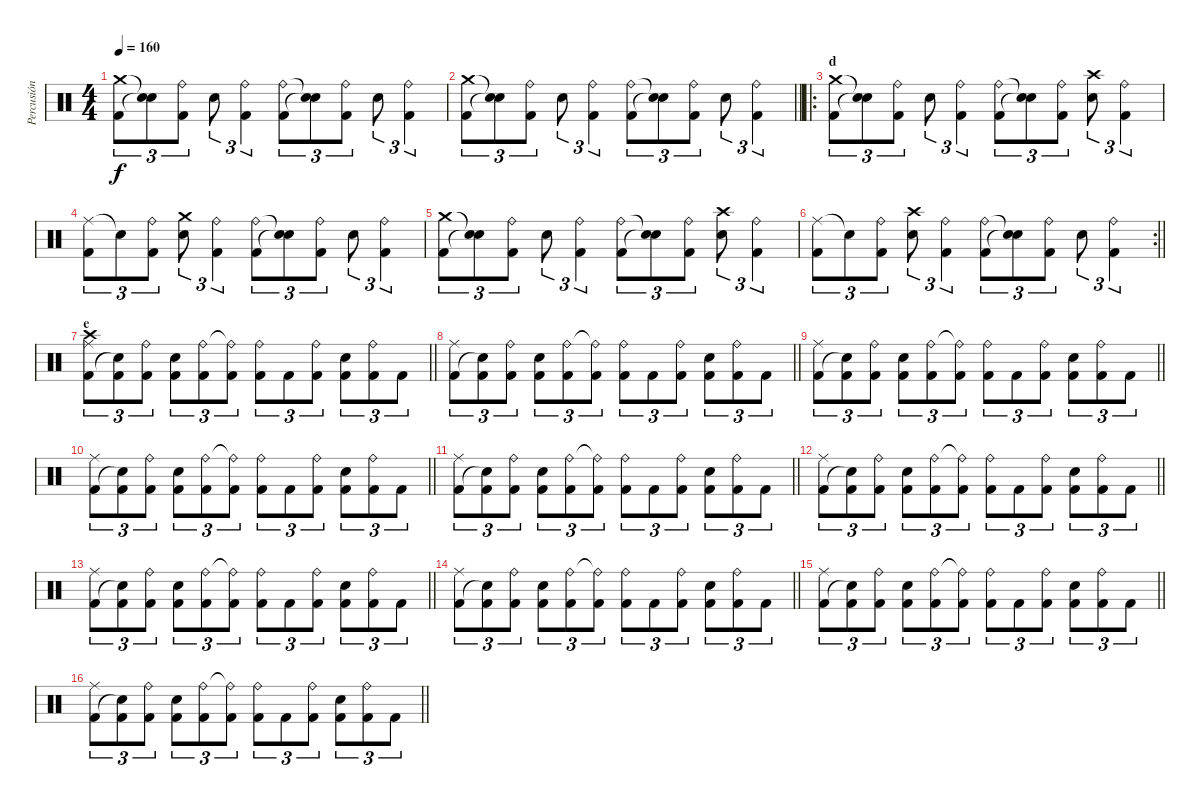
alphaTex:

\track ("Percusión" "Percusión") {instrument percussion}
\staff {score}
\articulation defaults
\ts (4 4)
\tempo 160
\clef neutral
\ks c
("Crash medium (hit)" "Kick (hit) 2").8{tu (3 2) dy f} ("Snare (hit)"{t} "Snare (hit)"{t}).8{tu (3 2)} ("Ride (bell)" "Kick (hit) 2").8{tu (3 2)} "Snare (hit) 2".8{tu (3 2)} ("Ride (bell)" "Kick (hit) 2").4{tu (3 2)} ("Ride (bell)" "Kick (hit) 2").8{tu (3 2)} ("Snare (hit)"{t} "Snare (hit)"{t}).8{tu (3 2)} ("Ride (bell)" "Kick (hit) 2").8{tu (3 2)} "Snare (hit) 2".8{tu (3 2)} ("Ride (bell)" "Kick (hit) 2").4{tu (3 2)} |
\barLineRight lightlight
("Crash medium (hit)" "Kick (hit) 2").8{tu (3 2)} ("Snare (hit)"{t} "Snare (hit)"{t}).8{tu (3 2)} ("Ride (bell)" "Kick (hit) 2").8{tu (3 2)} "Snare (hit) 2".8{tu (3 2)} ("Ride (bell)" "Kick (hit) 2").4{tu (3 2)} ("Ride (bell)" "Kick (hit) 2").8{tu (3 2)} ("Snare (hit)"{t} "Snare (hit)"{t}).8{tu (3 2)} ("Ride (bell)" "Kick (hit) 2").8{tu (3 2)} "Snare (hit) 2".8{tu (3 2)} ("Ride (bell)" "Kick (hit) 2").4{tu (3 2)} |
\ro
\section ("" "d")
("Crash medium (hit)" "Kick (hit) 2").8{tu (3 2)} ("Snare (hit)"{t} "Snare (hit)"{t}).8{tu (3 2)} ("Ride (bell)" "Kick (hit) 2").8{tu (3 2)} "Snare (hit) 2".8{tu (3 2)} ("Ride (bell)" "Kick (hit) 2").4{tu (3 2)} ("Ride (bell)" "Kick (hit) 2").8{tu (3 2)} ("Snare (hit)"{t} "Snare (hit)"{t}).8{tu (3 2)} ("Ride (bell)" "Kick (hit) 2").8{tu (3 2)} ("Snare (hit) 2" "Crash high (hit)").8{tu (3 2)} ("Ride (bell)" "Kick (hit) 2").4{tu (3 2)} |
("Ride (middle)" "Kick (hit) 2").8{tu (3 2)} "Snare (hit)"{t}.8{tu (3 2)} ("Ride (bell)" "Kick (hit) 2").8{tu (3 2)} ("Snare (hit) 2" "Crash medium (hit)").8{tu (3 2)} ("Ride (bell)" "Kick (hit) 2").4{tu (3 2)} ("Ride (bell)" "Kick (hit) 2").8{tu (3 2)} ("Snare (hit)"{t} "Snare (hit)"{t}).8{tu (3 2)} ("Ride (bell)" "Kick (hit) 2").8{tu (3 2)} "Snare (hit) 2".8{tu (3 2)} ("Ride (bell)" "Kick (hit) 2").4{tu (3 2)} |
("Crash medium (hit)" "Kick (hit) 2").8{tu (3 2)} ("Snare (hit)"{t} "Snare (hit)"{t}).8{tu (3 2)} ("Ride (bell)" "Kick (hit) 2").8{tu (3 2)} "Snare (hit) 2".8{tu (3 2)} ("Ride (bell)" "Kick (hit) 2").4{tu (3 2)} ("Ride (bell)" "Kick (hit) 2").8{tu (3 2)} ("Snare (hit)"{t} "Snare (hit)"{t}).8{tu (3 2)} ("Ride (bell)" "Kick (hit) 2").8{tu (3 2)} ("Snare (hit) 2" "Crash high (hit)").8{tu (3 2)} ("Ride (bell)" "Kick (hit) 2").4{tu (3 2)} |
\rc 2
\barLineRight lightlight
("Ride (middle)" "Kick (hit) 2").8{tu (3 2)} "Snare (hit)"{t}.8{tu (3 2)} ("Ride (bell)" "Kick (hit) 2").8{tu (3 2)} ("Snare (hit) 2" "Crash high (hit)").8{tu (3 2)} ("Ride (bell)" "Kick (hit) 2").4{tu (3 2)} ("Ride (bell)" "Kick (hit) 2").8{tu (3 2)} ("Snare (hit)"{t} "Snare (hit)"{t}).8{tu (3 2)} ("Ride (bell)" "Kick (hit) 2").8{tu (3 2)} "Snare (hit) 2".8{tu (3 2)} ("Ride (bell)" "Kick (hit) 2").4{tu (3 2)} |
\section ("" "e")
\barLineRight lightlight
("Ride (middle)" "Kick (hit) 2" "Crash high (hit)").8{tu (3 2)} ("Kick (hit) 2" "Snare (hit)"{t}).8{tu (3 2)} ("Ride (bell)" "Kick (hit) 2").8{tu (3 2)} ("Snare (hit) 2" "Kick (hit) 2").8{tu (3 2)} ("Ride (bell)" "Kick (hit) 2").8{tu (3 2)} ("Ride (bell)"{t} "Kick (hit) 2").8{tu (3 2)} ("Kick (hit) 2" "Ride (bell)").8{tu (3 2)} "Kick (hit) 2".8{tu (3 2)} ("Ride (bell)" "Kick (hit) 2").8{tu (3 2)} ("Kick (hit) 2" "Snare (hit) 2").8{tu (3 2)} ("Kick (hit) 2" "Ride (bell)").8{tu (3 2)} "Kick (hit) 2".8{tu (3 2)} |
\barLineRight lightlight
("Ride (middle)" "Kick (hit) 2").8{tu (3 2)} ("Kick (hit) 2" "Snare (hit)"{t}).8{tu (3 2)} ("Ride (bell)" "Kick (hit) 2").8{tu (3 2)} ("Snare (hit) 2" "Kick (hit) 2").8{tu (3 2)} ("Ride (bell)" "Kick (hit) 2").8{tu (3 2)} ("Ride (bell)"{t} "Kick (hit) 2").8{tu (3 2)} ("Kick (hit) 2" "Ride (bell)").8{tu (3 2)} "Kick (hit) 2".8{tu (3 2)} ("Ride (bell)" "Kick (hit) 2").8{tu (3 2)} ("Kick (hit) 2" "Snare (hit) 2").8{tu (3 2)} ("Kick (hit) 2" "Ride (bell)").8{tu (3 2)} "Kick (hit) 2".8{tu (3 2)} |
\barLineRight lightlight
("Ride (middle)" "Kick (hit) 2").8{tu (3 2)} ("Kick (hit) 2" "Snare (hit)"{t}).8{tu (3 2)} ("Ride (bell)" "Kick (hit) 2").8{tu (3 2)} ("Snare (hit) 2" "Kick (hit) 2").8{tu (3 2)} ("Ride (bell)" "Kick (hit) 2").8{tu (3 2)} ("Ride (bell)"{t} "Kick (hit) 2").8{tu (3 2)} ("Kick (hit) 2" "Ride (bell)").8{tu (3 2)} "Kick (hit) 2".8{tu (3 2)} ("Ride (bell)" "Kick (hit) 2").8{tu (3 2)} ("Kick (hit) 2" "Snare (hit) 2").8{tu (3 2)} ("Kick (hit) 2" "Ride (bell)").8{tu (3 2)} "Kick (hit) 2".8{tu (3 2)} |
\barLineRight lightlight
("Ride (middle)" "Kick (hit) 2").8{tu (3 2)} ("Kick (hit) 2" "Snare (hit)"{t}).8{tu (3 2)} ("Ride (bell)" "Kick (hit) 2").8{tu (3 2)} ("Snare (hit) 2" "Kick (hit) 2").8{tu (3 2)} ("Ride (bell)" "Kick (hit) 2").8{tu (3 2)} ("Ride (bell)"{t} "Kick (hit) 2").8{tu (3 2)} ("Kick (hit) 2" "Ride (bell)").8{tu (3 2)} "Kick (hit) 2".8{tu (3 2)} ("Ride (bell)" "Kick (hit) 2").8{tu (3 2)} ("Kick (hit) 2" "Snare (hit) 2").8{tu (3 2)} ("Kick (hit) 2" "Ride (bell)").8{tu (3 2)} "Kick (hit) 2".8{tu (3 2)} |
\barLineRight lightlight
("Ride (middle)" "Kick (hit) 2").8{tu (3 2)} ("Kick (hit) 2" "Snare (hit)"{t}).8{tu (3 2)} ("Ride (bell)" "Kick (hit) 2").8{tu (3 2)} ("Snare (hit) 2" "Kick (hit) 2").8{tu (3 2)} ("Ride (bell)" "Kick (hit) 2").8{tu (3 2)} ("Ride (bell)"{t} "Kick (hit) 2").8{tu (3 2)} ("Kick (hit) 2" "Ride (bell)").8{tu (3 2)} "Kick (hit) 2".8{tu (3 2)} ("Ride (bell)" "Kick (hit) 2").8{tu (3 2)} ("Kick (hit) 2" "Snare (hit) 2").8{tu (3 2)} ("Kick (hit) 2" "Ride (bell)").8{tu (3 2)} "Kick (hit) 2".8{tu (3 2)} |
\barLineRight lightlight
("Ride (middle)" "Kick (hit) 2").8{tu (3 2)} ("Kick (hit) 2" "Snare (hit)"{t}).8{tu (3 2)} ("Ride (bell)" "Kick (hit) 2").8{tu (3 2)} ("Snare (hit) 2" "Kick (hit) 2").8{tu (3 2)} ("Ride (bell)" "Kick (hit) 2").8{tu (3 2)} ("Ride (bell)"{t} "Kick (hit) 2").8{tu (3 2)} ("Kick (hit) 2" "Ride (bell)").8{tu (3 2)} "Kick (hit) 2".8{tu (3 2)} ("Ride (bell)" "Kick (hit) 2").8{tu (3 2)} ("Kick (hit) 2" "Snare (hit) 2").8{tu (3 2)} ("Kick (hit) 2" "Ride (bell)").8{tu (3 2)} "Kick (hit) 2".8{tu (3 2)} |
\barLineRight lightlight
("Ride (middle)" "Kick (hit) 2").8{tu (3 2)} ("Kick (hit) 2" "Snare (hit)"{t}).8{tu (3 2)} ("Ride (bell)" "Kick (hit) 2").8{tu (3 2)} ("Snare (hit) 2" "Kick (hit) 2").8{tu (3 2)} ("Ride (bell)" "Kick (hit) 2").8{tu (3 2)} ("Ride (bell)"{t} "Kick (hit) 2").8{tu (3 2)} ("Kick (hit) 2" "Ride (bell)").8{tu (3 2)} "Kick (hit) 2".8{tu (3 2)} ("Ride (bell)" "Kick (hit) 2").8{tu (3 2)} ("Kick (hit) 2" "Snare (hit) 2").8{tu (3 2)} ("Kick (hit) 2" "Ride (bell)").8{tu (3 2)} "Kick (hit) 2".8{tu (3 2)} |
\barLineRight lightlight
("Ride (middle)" "Kick (hit) 2").8{tu (3 2)} ("Kick (hit) 2" "Snare (hit)"{t}).8{tu (3 2)} ("Ride (bell)" "Kick (hit) 2").8{tu (3 2)} ("Snare (hit) 2" "Kick (hit) 2").8{tu (3 2)} ("Ride (bell)" "Kick (hit) 2").8{tu (3 2)} ("Ride (bell)"{t} "Kick (hit) 2").8{tu (3 2)} ("Kick (hit) 2" "Ride (bell)").8{tu (3 2)} "Kick (hit) 2".8{tu (3 2)} ("Ride (bell)" "Kick (hit) 2").8{tu (3 2)} ("Kick (hit) 2" "Snare (hit) 2").8{tu (3 2)} ("Kick (hit) 2" "Ride (bell)").8{tu (3 2)} "Kick (hit) 2".8{tu (3 2)} |
\barLineRight lightlight
("Ride (middle)" "Kick (hit) 2").8{tu (3 2)} ("Kick (hit) 2" "Snare (hit)"{t}).8{tu (3 2)} ("Ride (bell)" "Kick (hit) 2").8{tu (3 2)} ("Snare (hit) 2" "Kick (hit) 2").8{tu (3 2)} ("Ride (bell)" "Kick (hit) 2").8{tu (3 2)} ("Ride (bell)"{t} "Kick (hit) 2").8{tu (3 2)} ("Kick (hit) 2" "Ride (bell)").8{tu (3 2)} "Kick (hit) 2".8{tu (3 2)} ("Ride (bell)" "Kick (hit) 2").8{tu (3 2)} ("Kick (hit) 2" "Snare (hit) 2").8{tu (3 2)} ("Kick (hit) 2" "Ride (bell)").8{tu (3 2)} "Kick (hit) 2".8{tu (3 2)} |
\barLineRight lightlight
("Ride (middle)" "Kick (hit) 2").8{tu (3 2)} ("Kick (hit) 2" "Snare (hit)"{t}).8{tu (3 2)} ("Ride (bell)" "Kick (hit) 2").8{tu (3 2)} ("Snare (hit) 2" "Kick (hit) 2").8{tu (3 2)} ("Ride (bell)" "Kick (hit) 2").8{tu (3 2)} ("Ride (bell)"{t} "Kick (hit) 2").8{tu (3 2)} ("Kick (hit) 2" "Ride (bell)").8{tu (3 2)} "Kick (hit) 2".8{tu (3 2)} ("Ride (bell)" "Kick (hit) 2").8{tu (3 2)} ("Kick (hit) 2" "Snare (hit) 2").8{tu (3 2)} ("Kick (hit) 2" "Ride (bell)").8{tu (3 2)} "Kick (hit) 2".8{tu (3 2)}
